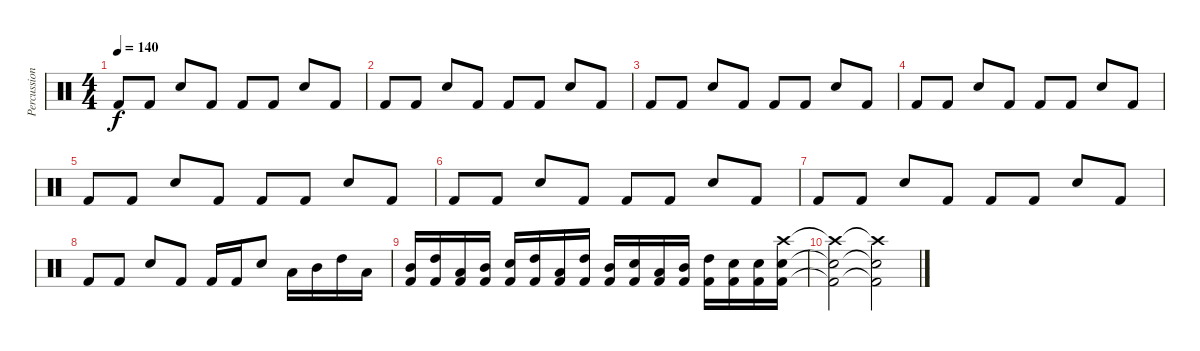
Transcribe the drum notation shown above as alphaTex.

\track ("Percussion" "Percussion") {instrument percussion}
\staff {score}
\articulation defaults
\ts (4 4)
\tempo 140
\clef neutral
\ks c "Kick (hit) 2".8{dy f} "Kick (hit) 2".8 "Snare (hit) 2".8 "Kick (hit) 2".8 "Kick (hit) 2".8 "Kick (hit) 2".8 "Snare (hit) 2".8 "Kick (hit) 2".8
|
"Kick (hit) 2".8 "Kick (hit) 2".8 "Snare (hit) 2".8 "Kick (hit) 2".8 "Kick (hit) 2".8 "Kick (hit) 2".8 "Snare (hit) 2".8 "Kick (hit) 2".8 |
"Kick (hit) 2".8 "Kick (hit) 2".8 "Snare (hit) 2".8 "Kick (hit) 2".8 "Kick (hit) 2".8 "Kick (hit) 2".8 "Snare (hit) 2".8 "Kick (hit) 2".8 |
"Kick (hit) 2".8 "Kick (hit) 2".8 "Snare (hit) 2".8 "Kick (hit) 2".8 "Kick (hit) 2".8 "Kick (hit) 2".8 "Snare (hit) 2".8 "Kick (hit) 2".8 |
"Kick (hit) 2".8 "Kick (hit) 2".8 "Snare (hit) 2".8 "Kick (hit) 2".8 "Kick (hit) 2".8 "Kick (hit) 2".8 "Snare (hit) 2".8 "Kick (hit) 2".8 |
"Kick (hit) 2".8 "Kick (hit) 2".8 "Snare (hit) 2".8 "Kick (hit) 2".8 "Kick (hit) 2".8 "Kick (hit) 2".8 "Snare (hit) 2".8 "Kick (hit) 2".8 |
"Kick (hit) 2".8 "Kick (hit) 2".8 "Snare (hit) 2".8 "Kick (hit) 2".8 "Kick (hit) 2".8 "Kick (hit) 2".8 "Snare (hit) 2".8 "Kick (hit) 2".8 |
"Kick (hit) 2".8 "Kick (hit) 2".8 "Snare (hit) 2".8 "Kick (hit) 2".8 "Kick (hit) 2".16 "Kick (hit) 2".16 "Snare (hit) 2".8 "Low Tom (hit)".16 "Mid Tom (hit)".16 "High Tom (hit)".16 "Low Tom (hit)".16 |
("Kick (hit) 2" "Mid Tom (hit)").16 ("Kick (hit) 2" "High Tom (hit)").16 ("Kick (hit) 2" "Low Tom (hit)").16 ("Kick (hit) 2" "Mid Tom (hit)").16 ("Kick (hit) 2" "Snare (hit) 2").16 ("Kick (hit) 2" "High Tom (hit)").16 ("Kick (hit) 2" "Low Tom (hit)").16 ("Kick (hit) 2" "High Tom (hit)").16 ("Kick (hit) 2" "Mid Tom (hit)").16 ("Kick (hit) 2" "Snare (hit) 2").16 ("Kick (hit) 2" "Low Tom (hit)").16 ("Kick (hit) 2" "Mid Tom (hit)").16 ("Kick (hit) 2" "High Tom (hit)").16 ("Kick (hit) 2" "Snare (hit) 2").16 ("Kick (hit) 2" "Snare (hit) 2").16 ("Kick (hit) 2" "Snare (hit) 2" "Crash high (hit)").16 |
("Kick (hit) 2"{t} "Snare (hit) 2"{t} "Crash high (hit)"{t}).2 ("Kick (hit) 2"{t} "Snare (hit) 2"{t} "Crash high (hit)"{t}).2
